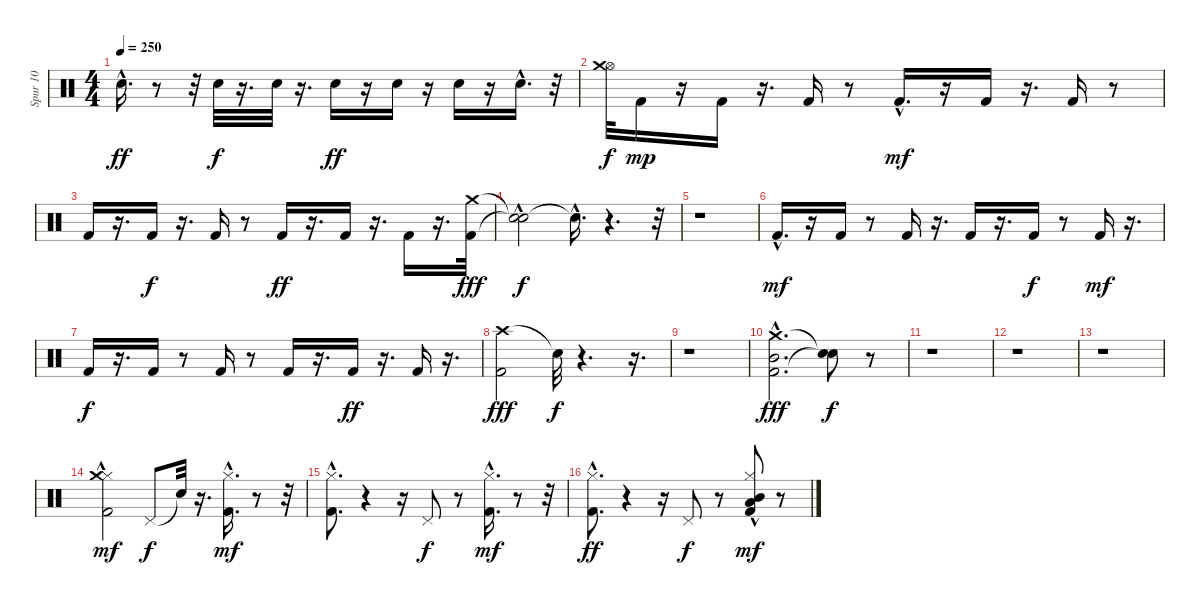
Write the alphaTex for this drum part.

\track ("Spur 10" "Spur 10") {instrument percussion}
\staff {score}
\articulation defaults
\ts (4 4)
\tempo 250
\clef neutral
\ks c "Electric Snare (hit)"{hac}.16{d dy ff}
r.8 r.32 "Electric Snare (hit)".32{dy f} r.16{d} "Electric Snare (hit)".32 r.16{d} "Electric Snare (hit)".16{dy ff} r.16 "Electric Snare (hit)".16 r.16 "Electric Snare (hit)".16 r.16 "Electric Snare (hit)"{hac}.16{d} r.32 |
("Hi-Hat (open)" "Crash medium (hit)").32{dy f} "Kick (hit) 2".16{dy mp} r.16 "Kick (hit) 2".16 r.16{d} "Kick (hit) 2".16 r.8 "Kick (hit) 2"{hac}.16{d dy mf} r.16 "Kick (hit) 2".16 r.16{d} "Kick (hit) 2".16 r.8 |
"Kick (hit) 2".16 r.16{d} "Kick (hit) 2".16{dy f} r.16{d} "Kick (hit) 2".16 r.8 "Kick (hit) 2".16{dy ff} r.16{d} "Kick (hit) 2".16 r.16{d} "Kick (hit) 2".16 r.16{d} ("Crash medium (hit)" "Kick (hit) 2").32{dy fff} |
("Snare (hit)"{t} "Snare (hit)"{hac t}).2{dy f} "Snare (hit)"{hac t}.16{d} r.4{d} r.32 |
r.1 |
"Kick (hit) 2"{hac}.16{d dy mf} r.16 "Kick (hit) 2".16 r.8 "Kick (hit) 2".16 r.16{d} "Kick (hit) 2".16 r.16{d} "Kick (hit) 2".16{dy f} r.8 "Kick (hit) 2".16{dy mf} r.16{d} |
"Kick (hit) 2".16{dy f} r.16{d} "Kick (hit) 2".16 r.8 "Kick (hit) 2".16 r.8 "Kick (hit) 2".16 r.16{d} "Kick (hit) 2".16{dy ff} r.16{d} "Kick (hit) 2".16 r.16{d} |
("Crash high (hit)" "Kick (hit) 2").2{dy fff} "Snare (hit)"{t}.32{dy f} r.4{d} r.16{d} |
r.1 |
("Kick (hit) 2" "Crash medium (hit)"{hac} "Mid Tom (hit)"{hac}).2{d dy fff} ("Snare (hit)"{t} "Snare (hit)"{t}).8{dy f} r.8 |
r.1 |
r.1 |
r.1 |
("Kick (hit) 2"{hac} "Hi-Hat (closed)" "Crash medium (hit)").2{dy mf} "Pedal Hi-Hat (hit)".8{dy f} "Snare (hit)"{t}.32 r.16{d} ("Kick (hit) 2"{hac} "Hi-Hat (closed)"{hac}).16{d dy mf} r.8 r.32 |
("Kick (hit) 2"{hac} "Hi-Hat (closed)").8{d} r.4 r.16 "Pedal Hi-Hat (hit)".8{dy f} r.8 ("Kick (hit) 2"{hac} "Hi-Hat (closed)"{hac}).16{d dy mf} r.8 r.32 |
("Hi-Hat (closed)" "Kick (hit) 2"{hac}).8{d dy ff} r.4 r.16 "Pedal Hi-Hat (hit)".8{dy f} r.8 ("Kick (hit) 2" "Hi-Hat (closed)"{hac} "Mid Tom (hit)"{hac} "Low Tom (hit)"{hac}).8{dy mf} r.8
